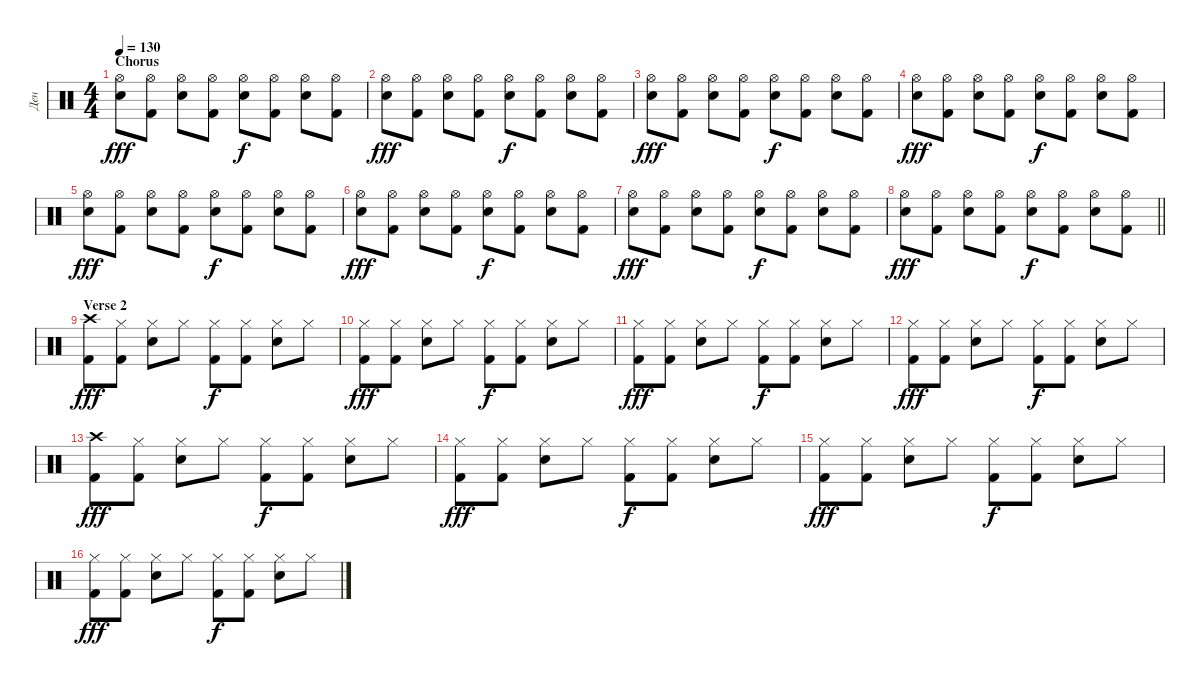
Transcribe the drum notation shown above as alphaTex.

\track ("Ден" "Ден") {instrument percussion}
\staff {score}
\articulation defaults
\ts (4 4)
\section ("" "Chorus")
\tempo 130
\clef neutral
\ks c
("Hi-Hat (open)" "Snare (hit) 2").8{dy fff} ("Hi-Hat (open)" "Kick (hit) 2").8 ("Hi-Hat (open)" "Snare (hit) 2").8 ("Hi-Hat (open)" "Kick (hit) 2").8 ("Hi-Hat (open)" "Snare (hit) 2").8{dy f} ("Hi-Hat (open)" "Kick (hit) 2").8 ("Hi-Hat (open)" "Snare (hit) 2").8 ("Hi-Hat (open)" "Kick (hit) 2").8 |
("Hi-Hat (open)" "Snare (hit) 2").8{dy fff} ("Hi-Hat (open)" "Kick (hit) 2").8 ("Hi-Hat (open)" "Snare (hit) 2").8 ("Hi-Hat (open)" "Kick (hit) 2").8 ("Hi-Hat (open)" "Snare (hit) 2").8{dy f} ("Hi-Hat (open)" "Kick (hit) 2").8 ("Hi-Hat (open)" "Snare (hit) 2").8 ("Hi-Hat (open)" "Kick (hit) 2").8 |
("Hi-Hat (open)" "Snare (hit) 2").8{dy fff} ("Hi-Hat (open)" "Kick (hit) 2").8 ("Hi-Hat (open)" "Snare (hit) 2").8 ("Hi-Hat (open)" "Kick (hit) 2").8 ("Hi-Hat (open)" "Snare (hit) 2").8{dy f} ("Hi-Hat (open)" "Kick (hit) 2").8 ("Hi-Hat (open)" "Snare (hit) 2").8 ("Hi-Hat (open)" "Kick (hit) 2").8 |
("Hi-Hat (open)" "Snare (hit) 2").8{dy fff} ("Hi-Hat (open)" "Kick (hit) 2").8 ("Hi-Hat (open)" "Snare (hit) 2").8 ("Hi-Hat (open)" "Kick (hit) 2").8 ("Hi-Hat (open)" "Snare (hit) 2").8{dy f} ("Hi-Hat (open)" "Kick (hit) 2").8 ("Hi-Hat (open)" "Snare (hit) 2").8 ("Hi-Hat (open)" "Kick (hit) 2").8 |
("Hi-Hat (open)" "Snare (hit) 2").8{dy fff} ("Hi-Hat (open)" "Kick (hit) 2").8 ("Hi-Hat (open)" "Snare (hit) 2").8 ("Hi-Hat (open)" "Kick (hit) 2").8 ("Hi-Hat (open)" "Snare (hit) 2").8{dy f} ("Hi-Hat (open)" "Kick (hit) 2").8 ("Hi-Hat (open)" "Snare (hit) 2").8 ("Hi-Hat (open)" "Kick (hit) 2").8 |
("Hi-Hat (open)" "Snare (hit) 2").8{dy fff} ("Hi-Hat (open)" "Kick (hit) 2").8 ("Hi-Hat (open)" "Snare (hit) 2").8 ("Hi-Hat (open)" "Kick (hit) 2").8 ("Hi-Hat (open)" "Snare (hit) 2").8{dy f} ("Hi-Hat (open)" "Kick (hit) 2").8 ("Hi-Hat (open)" "Snare (hit) 2").8 ("Hi-Hat (open)" "Kick (hit) 2").8 |
("Hi-Hat (open)" "Snare (hit) 2").8{dy fff} ("Hi-Hat (open)" "Kick (hit) 2").8 ("Hi-Hat (open)" "Snare (hit) 2").8 ("Hi-Hat (open)" "Kick (hit) 2").8 ("Hi-Hat (open)" "Snare (hit) 2").8{dy f} ("Hi-Hat (open)" "Kick (hit) 2").8 ("Hi-Hat (open)" "Snare (hit) 2").8 ("Hi-Hat (open)" "Kick (hit) 2").8 |
\barLineRight lightlight
("Hi-Hat (open)" "Snare (hit) 2").8{dy fff} ("Hi-Hat (open)" "Kick (hit) 2").8 ("Hi-Hat (open)" "Snare (hit) 2").8 ("Hi-Hat (open)" "Kick (hit) 2").8 ("Hi-Hat (open)" "Snare (hit) 2").8{dy f} ("Hi-Hat (open)" "Kick (hit) 2").8 ("Hi-Hat (open)" "Snare (hit) 2").8 ("Hi-Hat (open)" "Kick (hit) 2").8 |
\section ("" "Verse 2")
("Crash high (hit)" "Kick (hit) 2").8{dy fff} ("Hi-Hat (closed)" "Kick (hit) 2").8 ("Hi-Hat (closed)" "Snare (hit) 2").8 "Hi-Hat (closed)".8 ("Hi-Hat (closed)" "Kick (hit) 2").8{dy f} ("Hi-Hat (closed)" "Kick (hit) 2").8 ("Hi-Hat (closed)" "Snare (hit) 2").8 "Hi-Hat (closed)".8 |
("Hi-Hat (closed)" "Kick (hit) 2").8{dy fff} ("Hi-Hat (closed)" "Kick (hit) 2").8 ("Hi-Hat (closed)" "Snare (hit) 2").8 "Hi-Hat (closed)".8 ("Hi-Hat (closed)" "Kick (hit) 2").8{dy f} ("Hi-Hat (closed)" "Kick (hit) 2").8 ("Hi-Hat (closed)" "Snare (hit) 2").8 "Hi-Hat (closed)".8 |
("Hi-Hat (closed)" "Kick (hit) 2").8{dy fff} ("Hi-Hat (closed)" "Kick (hit) 2").8 ("Hi-Hat (closed)" "Snare (hit) 2").8 "Hi-Hat (closed)".8 ("Hi-Hat (closed)" "Kick (hit) 2").8{dy f} ("Hi-Hat (closed)" "Kick (hit) 2").8 ("Hi-Hat (closed)" "Snare (hit) 2").8 "Hi-Hat (closed)".8 |
("Hi-Hat (closed)" "Kick (hit) 2").8{dy fff} ("Hi-Hat (closed)" "Kick (hit) 2").8 ("Hi-Hat (closed)" "Snare (hit) 2").8 "Hi-Hat (closed)".8 ("Hi-Hat (closed)" "Kick (hit) 2").8{dy f} ("Hi-Hat (closed)" "Kick (hit) 2").8 ("Hi-Hat (closed)" "Snare (hit) 2").8 "Hi-Hat (closed)".8 |
("Crash high (hit)" "Kick (hit) 2").8{dy fff} ("Hi-Hat (closed)" "Kick (hit) 2").8 ("Hi-Hat (closed)" "Snare (hit) 2").8 "Hi-Hat (closed)".8 ("Hi-Hat (closed)" "Kick (hit) 2").8{dy f} ("Hi-Hat (closed)" "Kick (hit) 2").8 ("Hi-Hat (closed)" "Snare (hit) 2").8 "Hi-Hat (closed)".8 |
("Hi-Hat (closed)" "Kick (hit) 2").8{dy fff} ("Hi-Hat (closed)" "Kick (hit) 2").8 ("Hi-Hat (closed)" "Snare (hit) 2").8 "Hi-Hat (closed)".8 ("Hi-Hat (closed)" "Kick (hit) 2").8{dy f} ("Hi-Hat (closed)" "Kick (hit) 2").8 ("Hi-Hat (closed)" "Snare (hit) 2").8 "Hi-Hat (closed)".8 |
("Hi-Hat (closed)" "Kick (hit) 2").8{dy fff} ("Hi-Hat (closed)" "Kick (hit) 2").8 ("Hi-Hat (closed)" "Snare (hit) 2").8 "Hi-Hat (closed)".8 ("Hi-Hat (closed)" "Kick (hit) 2").8{dy f} ("Hi-Hat (closed)" "Kick (hit) 2").8 ("Hi-Hat (closed)" "Snare (hit) 2").8 "Hi-Hat (closed)".8 |
("Hi-Hat (closed)" "Kick (hit) 2").8{dy fff} ("Hi-Hat (closed)" "Kick (hit) 2").8 ("Hi-Hat (closed)" "Snare (hit) 2").8 "Hi-Hat (closed)".8 ("Hi-Hat (closed)" "Kick (hit) 2").8{dy f} ("Hi-Hat (closed)" "Kick (hit) 2").8 ("Hi-Hat (closed)" "Snare (hit) 2").8 "Hi-Hat (closed)".8
